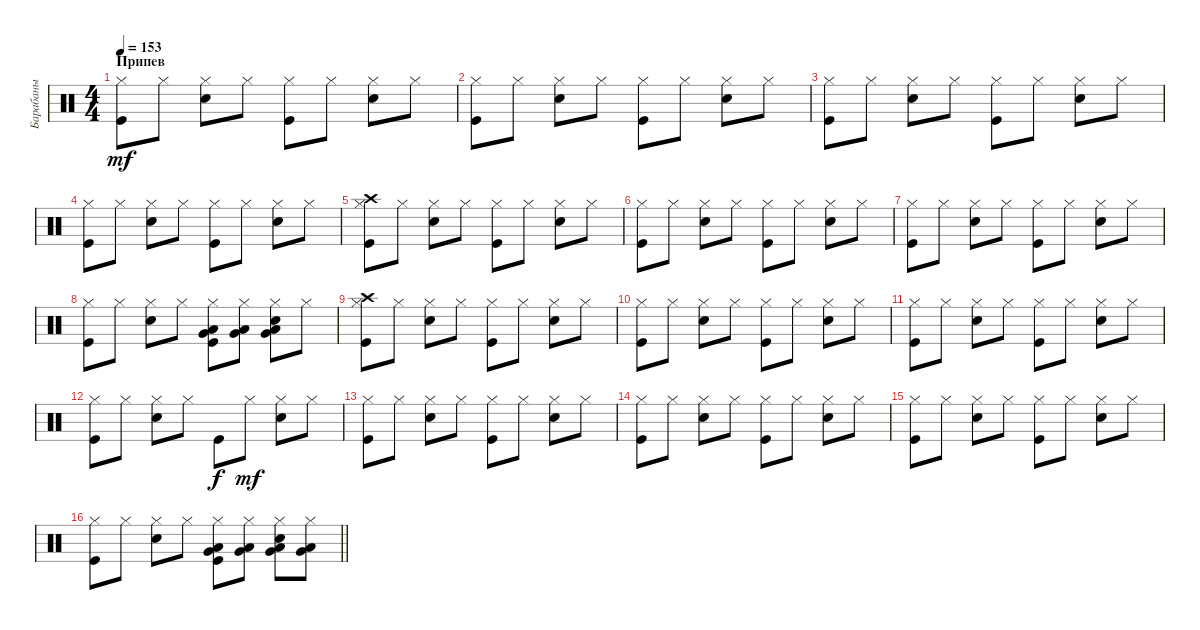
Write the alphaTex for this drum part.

\track ("Барабаны" "Барабаны") {instrument percussion}
\staff {score}
\articulation defaults
\ts (4 4)
\section ("" "Припев")
\tempo 153
\clef neutral
\ks c
("Kick (hit)" "Hi-Hat (closed)").8{dy mf} "Hi-Hat (closed)".8 ("Snare (hit) 2" "Hi-Hat (closed)").8 "Hi-Hat (closed)".8 ("Kick (hit)" "Hi-Hat (closed)").8 "Hi-Hat (closed)".8 ("Snare (hit) 2" "Hi-Hat (closed)").8 "Hi-Hat (closed)".8 |
("Kick (hit)" "Hi-Hat (closed)").8 "Hi-Hat (closed)".8 ("Snare (hit) 2" "Hi-Hat (closed)").8 "Hi-Hat (closed)".8 ("Kick (hit)" "Hi-Hat (closed)").8 "Hi-Hat (closed)".8 ("Snare (hit) 2" "Hi-Hat (closed)").8 "Hi-Hat (closed)".8 |
("Kick (hit)" "Hi-Hat (closed)").8 "Hi-Hat (closed)".8 ("Snare (hit) 2" "Hi-Hat (closed)").8 "Hi-Hat (closed)".8 ("Kick (hit)" "Hi-Hat (closed)").8 "Hi-Hat (closed)".8 ("Snare (hit) 2" "Hi-Hat (closed)").8 "Hi-Hat (closed)".8 |
("Kick (hit)" "Hi-Hat (closed)").8 "Hi-Hat (closed)".8 ("Snare (hit) 2" "Hi-Hat (closed)").8 "Hi-Hat (closed)".8 ("Kick (hit)" "Hi-Hat (closed)").8 "Hi-Hat (closed)".8 ("Snare (hit) 2" "Hi-Hat (closed)").8 "Hi-Hat (closed)".8 |
("Kick (hit)" "Hi-Hat (closed)" "Crash high (hit)").8 "Hi-Hat (closed)".8 ("Snare (hit) 2" "Hi-Hat (closed)").8 "Hi-Hat (closed)".8 ("Kick (hit)" "Hi-Hat (closed)").8 "Hi-Hat (closed)".8 ("Snare (hit) 2" "Hi-Hat (closed)").8 "Hi-Hat (closed)".8 |
("Kick (hit)" "Hi-Hat (closed)").8 "Hi-Hat (closed)".8 ("Snare (hit) 2" "Hi-Hat (closed)").8 "Hi-Hat (closed)".8 ("Kick (hit)" "Hi-Hat (closed)").8 "Hi-Hat (closed)".8 ("Snare (hit) 2" "Hi-Hat (closed)").8 "Hi-Hat (closed)".8 |
("Kick (hit)" "Hi-Hat (closed)").8 "Hi-Hat (closed)".8 ("Snare (hit) 2" "Hi-Hat (closed)").8 "Hi-Hat (closed)".8 ("Kick (hit)" "Hi-Hat (closed)").8 "Hi-Hat (closed)".8 ("Snare (hit) 2" "Hi-Hat (closed)").8 "Hi-Hat (closed)".8 |
("Kick (hit)" "Hi-Hat (closed)").8 "Hi-Hat (closed)".8 ("Snare (hit) 2" "Hi-Hat (closed)").8 "Hi-Hat (closed)".8 ("Kick (hit)" "Hi-Hat (closed)" "Low Floor Tom (hit)" "Very Low Tom (hit)").8 ("Hi-Hat (closed)" "Low Floor Tom (hit)" "Very Low Tom (hit)").8 ("Snare (hit) 2" "Hi-Hat (closed)" "Low Floor Tom (hit)" "Very Low Tom (hit)").8 "Hi-Hat (closed)".8 |
("Kick (hit)" "Hi-Hat (closed)" "Crash high (hit)").8 "Hi-Hat (closed)".8 ("Snare (hit) 2" "Hi-Hat (closed)").8 "Hi-Hat (closed)".8 ("Kick (hit)" "Hi-Hat (closed)").8 "Hi-Hat (closed)".8 ("Snare (hit) 2" "Hi-Hat (closed)").8 "Hi-Hat (closed)".8 |
("Kick (hit)" "Hi-Hat (closed)").8 "Hi-Hat (closed)".8 ("Snare (hit) 2" "Hi-Hat (closed)").8 "Hi-Hat (closed)".8 ("Kick (hit)" "Hi-Hat (closed)").8 "Hi-Hat (closed)".8 ("Snare (hit) 2" "Hi-Hat (closed)").8 "Hi-Hat (closed)".8 |
("Kick (hit)" "Hi-Hat (closed)").8 "Hi-Hat (closed)".8 ("Snare (hit) 2" "Hi-Hat (closed)").8 "Hi-Hat (closed)".8 ("Kick (hit)" "Hi-Hat (closed)").8 "Hi-Hat (closed)".8 ("Snare (hit) 2" "Hi-Hat (closed)").8 "Hi-Hat (closed)".8 |
("Kick (hit)" "Hi-Hat (closed)").8 "Hi-Hat (closed)".8 ("Snare (hit) 2" "Hi-Hat (closed)").8 "Hi-Hat (closed)".8 "Kick (hit)".8{dy f} "Hi-Hat (closed)".8{dy mf} ("Snare (hit) 2" "Hi-Hat (closed)").8 "Hi-Hat (closed)".8 |
("Kick (hit)" "Hi-Hat (closed)").8 "Hi-Hat (closed)".8 ("Snare (hit) 2" "Hi-Hat (closed)").8 "Hi-Hat (closed)".8 ("Kick (hit)" "Hi-Hat (closed)").8 "Hi-Hat (closed)".8 ("Snare (hit) 2" "Hi-Hat (closed)").8 "Hi-Hat (closed)".8 |
("Kick (hit)" "Hi-Hat (closed)").8 "Hi-Hat (closed)".8 ("Snare (hit) 2" "Hi-Hat (closed)").8 "Hi-Hat (closed)".8 ("Kick (hit)" "Hi-Hat (closed)").8 "Hi-Hat (closed)".8 ("Snare (hit) 2" "Hi-Hat (closed)").8 "Hi-Hat (closed)".8 |
("Kick (hit)" "Hi-Hat (closed)").8 "Hi-Hat (closed)".8 ("Snare (hit) 2" "Hi-Hat (closed)").8 "Hi-Hat (closed)".8 ("Kick (hit)" "Hi-Hat (closed)").8 "Hi-Hat (closed)".8 ("Snare (hit) 2" "Hi-Hat (closed)").8 "Hi-Hat (closed)".8 |
\barLineRight lightlight
("Kick (hit)" "Hi-Hat (closed)").8 "Hi-Hat (closed)".8 ("Snare (hit) 2" "Hi-Hat (closed)").8 "Hi-Hat (closed)".8 ("Kick (hit)" "Hi-Hat (closed)" "Low Floor Tom (hit)" "Very Low Tom (hit)").8 ("Hi-Hat (closed)" "Low Floor Tom (hit)" "Very Low Tom (hit)").8 ("Snare (hit) 2" "Hi-Hat (closed)" "Low Floor Tom (hit)" "Very Low Tom (hit)").8 ("Hi-Hat (closed)" "Low Floor Tom (hit)" "Very Low Tom (hit)").8
